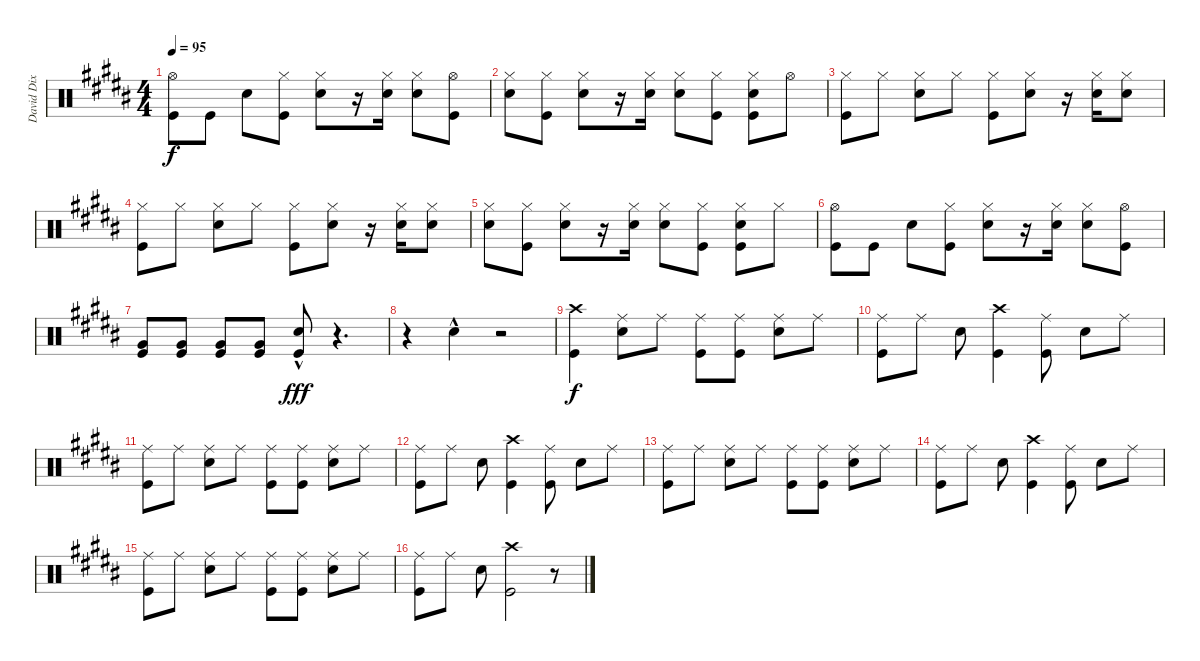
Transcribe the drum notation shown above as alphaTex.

\track ("David Dix Drums" "David Dix ") {instrument percussion}
\staff {score}
\articulation defaults
\ts (4 4)
\tempo 95
\clef neutral
\ks g#minor
("Hi-Hat (open)" "Kick (hit)").8{dy f} "Kick (hit)".8 "Snare (hit) 2".8 ("Hi-Hat (closed)" "Kick (hit)").8 ("Hi-Hat (closed)" "Snare (hit) 2").8 r.16 ("Hi-Hat (closed)" "Snare (hit) 2").16 ("Hi-Hat (closed)" "Snare (hit) 2").8 ("Hi-Hat (open)" "Kick (hit)").8 |
("Hi-Hat (closed)" "Snare (hit) 2").8 ("Hi-Hat (closed)" "Kick (hit)").8 ("Hi-Hat (closed)" "Snare (hit) 2").8 r.16 ("Hi-Hat (closed)" "Snare (hit) 2").16 ("Hi-Hat (closed)" "Snare (hit) 2").8 ("Hi-Hat (closed)" "Kick (hit)").8 ("Hi-Hat (closed)" "Snare (hit) 2" "Kick (hit)").8 "Hi-Hat (open)".8 |
("Hi-Hat (closed)" "Kick (hit)").8 "Hi-Hat (closed)".8 ("Hi-Hat (closed)" "Snare (hit) 2").8 "Hi-Hat (closed)".8 ("Hi-Hat (closed)" "Kick (hit)").8 ("Hi-Hat (closed)" "Snare (hit) 2").8 r.16 ("Hi-Hat (closed)" "Snare (hit) 2").16 ("Hi-Hat (closed)" "Snare (hit) 2").8 |
("Hi-Hat (closed)" "Kick (hit)").8 "Hi-Hat (closed)".8 ("Hi-Hat (closed)" "Snare (hit) 2").8 "Hi-Hat (closed)".8 ("Hi-Hat (closed)" "Kick (hit)").8 ("Hi-Hat (closed)" "Snare (hit) 2").8 r.16 ("Hi-Hat (closed)" "Snare (hit) 2").16 ("Hi-Hat (closed)" "Snare (hit) 2").8 |
("Hi-Hat (closed)" "Snare (hit) 2").8 ("Hi-Hat (closed)" "Kick (hit)").8 ("Hi-Hat (closed)" "Snare (hit) 2").8 r.16 ("Hi-Hat (closed)" "Snare (hit) 2").16 ("Hi-Hat (closed)" "Snare (hit) 2").8 ("Hi-Hat (closed)" "Kick (hit)").8 ("Hi-Hat (closed)" "Snare (hit) 2" "Kick (hit)").8 "Hi-Hat (closed)".8 |
("Hi-Hat (open)" "Kick (hit)").8 "Kick (hit)".8 "Snare (hit) 2".8 ("Hi-Hat (closed)" "Kick (hit)").8 ("Hi-Hat (closed)" "Snare (hit) 2").8 r.16 ("Hi-Hat (closed)" "Snare (hit) 2").16 ("Hi-Hat (closed)" "Snare (hit) 2").8 ("Hi-Hat (open)" "Kick (hit)").8 |
("Very Low Tom (hit)" "Kick (hit)").8 ("Very Low Tom (hit)" "Kick (hit)").8 ("Very Low Tom (hit)" "Kick (hit)").8 ("Very Low Tom (hit)" "Kick (hit)").8 ("Snare (hit) 2"{hac} "Kick (hit)").8{dy fff} r.4{d} |
r.4 "Snare (hit) 2"{hac}.4 r.2 |
("Crash high (hit)" "Kick (hit)").4{dy f volume 13} ("Ride (middle)" "Snare (hit) 2").8 "Ride (middle)".8 ("Ride (middle)" "Kick (hit)").8 ("Ride (middle)" "Kick (hit)").8 ("Ride (middle)" "Snare (hit) 2").8 "Ride (middle)".8 |
("Ride (middle)" "Kick (hit)").8 "Ride (middle)".8 "Snare (hit) 2".8 ("Crash high (hit)" "Kick (hit)").4 ("Ride (middle)" "Kick (hit)").8 "Snare (hit) 2".8 "Ride (middle)".8 |
("Ride (middle)" "Kick (hit)").8 "Ride (middle)".8 ("Ride (middle)" "Snare (hit) 2").8 "Ride (middle)".8 ("Ride (middle)" "Kick (hit)").8 ("Ride (middle)" "Kick (hit)").8 ("Ride (middle)" "Snare (hit) 2").8 "Ride (middle)".8 |
("Ride (middle)" "Kick (hit)").8 "Ride (middle)".8 "Snare (hit) 2".8 ("Crash high (hit)" "Kick (hit)").4 ("Ride (middle)" "Kick (hit)").8 "Snare (hit) 2".8 "Ride (middle)".8 |
("Ride (middle)" "Kick (hit)").8 "Ride (middle)".8 ("Ride (middle)" "Snare (hit) 2").8 "Ride (middle)".8 ("Ride (middle)" "Kick (hit)").8 ("Ride (middle)" "Kick (hit)").8 ("Ride (middle)" "Snare (hit) 2").8 "Ride (middle)".8 |
("Ride (middle)" "Kick (hit)").8 "Ride (middle)".8 "Snare (hit) 2".8 ("Crash high (hit)" "Kick (hit)").4 ("Ride (middle)" "Kick (hit)").8 "Snare (hit) 2".8 "Ride (middle)".8 |
("Ride (middle)" "Kick (hit)").8 "Ride (middle)".8 ("Ride (middle)" "Snare (hit) 2").8 "Ride (middle)".8 ("Ride (middle)" "Kick (hit)").8 ("Ride (middle)" "Kick (hit)").8 ("Ride (middle)" "Snare (hit) 2").8 "Ride (middle)".8 |
("Ride (middle)" "Kick (hit)").8 "Ride (middle)".8 "Snare (hit) 2".8 ("Crash high (hit)" "Kick (hit)").2 r.8
